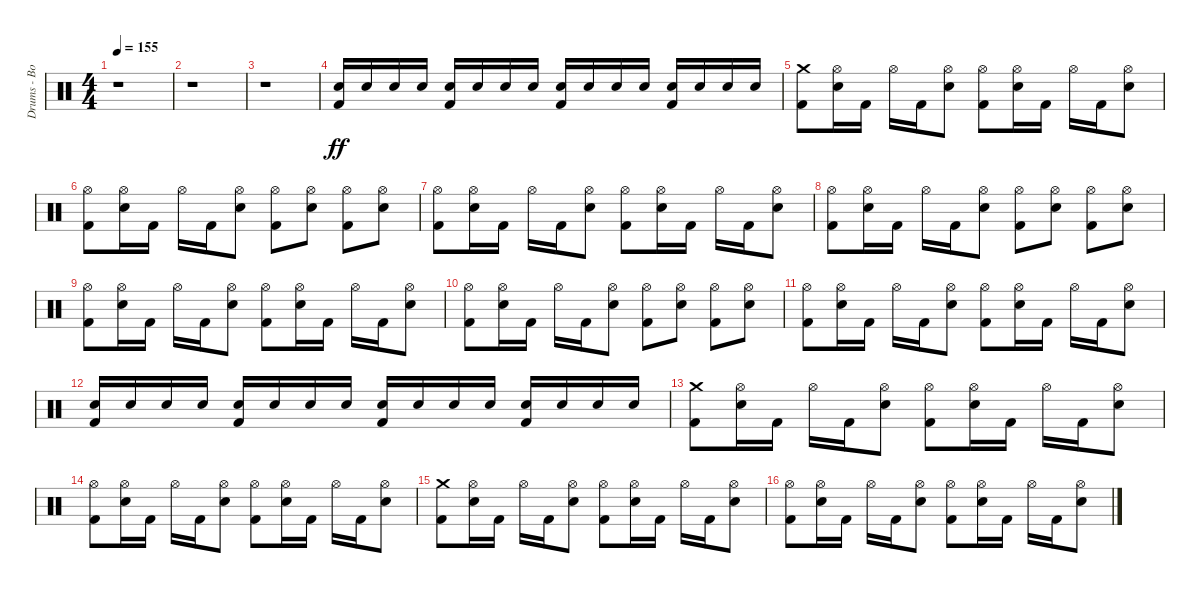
\track ("Drums - Bobby Schayer" "Drums - Bo") {instrument percussion}
\staff {score}
\articulation defaults
\ts (4 4)
\tempo 155
\clef neutral
\ks c
r.1{dy ff} |
r.1 |
r.1 |
("Electric Snare (hit)" "Kick (hit) 2").16 "Electric Snare (hit)".16 "Electric Snare (hit)".16 "Electric Snare (hit)".16 ("Electric Snare (hit)" "Kick (hit) 2").16 "Electric Snare (hit)".16 "Electric Snare (hit)".16 "Electric Snare (hit)".16 ("Electric Snare (hit)" "Kick (hit) 2").16 "Electric Snare (hit)".16 "Electric Snare (hit)".16 "Electric Snare (hit)".16 ("Electric Snare (hit)" "Kick (hit) 2").16 "Electric Snare (hit)".16 "Electric Snare (hit)".16 "Electric Snare (hit)".16 |
("Kick (hit) 2" "Crash medium (hit)").8 ("Electric Snare (hit)" "Hi-Hat (open)").16 "Kick (hit) 2".16 "Hi-Hat (open)".16 "Kick (hit) 2".16 ("Electric Snare (hit)" "Hi-Hat (open)").8 ("Kick (hit) 2" "Hi-Hat (open)").8 ("Electric Snare (hit)" "Hi-Hat (open)").16 "Kick (hit) 2".16 "Hi-Hat (open)".16 "Kick (hit) 2".16 ("Electric Snare (hit)" "Hi-Hat (open)").8 |
("Kick (hit) 2" "Hi-Hat (open)").8 ("Electric Snare (hit)" "Hi-Hat (open)").16 "Kick (hit) 2".16 "Hi-Hat (open)".16 "Kick (hit) 2".16 ("Electric Snare (hit)" "Hi-Hat (open)").8 ("Kick (hit) 2" "Hi-Hat (open)").8 ("Electric Snare (hit)" "Hi-Hat (open)").8 ("Hi-Hat (open)" "Kick (hit) 2").8 ("Electric Snare (hit)" "Hi-Hat (open)").8 |
("Kick (hit) 2" "Hi-Hat (open)").8 ("Electric Snare (hit)" "Hi-Hat (open)").16 "Kick (hit) 2".16 "Hi-Hat (open)".16 "Kick (hit) 2".16 ("Electric Snare (hit)" "Hi-Hat (open)").8 ("Kick (hit) 2" "Hi-Hat (open)").8 ("Electric Snare (hit)" "Hi-Hat (open)").16 "Kick (hit) 2".16 "Hi-Hat (open)".16 "Kick (hit) 2".16 ("Electric Snare (hit)" "Hi-Hat (open)").8 |
("Kick (hit) 2" "Hi-Hat (open)").8 ("Electric Snare (hit)" "Hi-Hat (open)").16 "Kick (hit) 2".16 "Hi-Hat (open)".16 "Kick (hit) 2".16 ("Electric Snare (hit)" "Hi-Hat (open)").8 ("Hi-Hat (open)" "Kick (hit) 2").8 ("Hi-Hat (open)" "Electric Snare (hit)").8 ("Hi-Hat (open)" "Kick (hit) 2").8 ("Hi-Hat (open)" "Electric Snare (hit)").8 |
("Kick (hit) 2" "Hi-Hat (open)").8 ("Electric Snare (hit)" "Hi-Hat (open)").16 "Kick (hit) 2".16 "Hi-Hat (open)".16 "Kick (hit) 2".16 ("Electric Snare (hit)" "Hi-Hat (open)").8 ("Kick (hit) 2" "Hi-Hat (open)").8 ("Electric Snare (hit)" "Hi-Hat (open)").16 "Kick (hit) 2".16 "Hi-Hat (open)".16 "Kick (hit) 2".16 ("Electric Snare (hit)" "Hi-Hat (open)").8 |
("Kick (hit) 2" "Hi-Hat (open)").8 ("Electric Snare (hit)" "Hi-Hat (open)").16 "Kick (hit) 2".16 "Hi-Hat (open)".16 "Kick (hit) 2".16 ("Electric Snare (hit)" "Hi-Hat (open)").8 ("Hi-Hat (open)" "Kick (hit) 2").8 ("Hi-Hat (open)" "Electric Snare (hit)").8 ("Hi-Hat (open)" "Kick (hit) 2").8 ("Hi-Hat (open)" "Electric Snare (hit)").8 |
("Kick (hit) 2" "Hi-Hat (open)").8 ("Electric Snare (hit)" "Hi-Hat (open)").16 "Kick (hit) 2".16 "Hi-Hat (open)".16 "Kick (hit) 2".16 ("Electric Snare (hit)" "Hi-Hat (open)").8 ("Kick (hit) 2" "Hi-Hat (open)").8 ("Electric Snare (hit)" "Hi-Hat (open)").16 "Kick (hit) 2".16 "Hi-Hat (open)".16 "Kick (hit) 2".16 ("Electric Snare (hit)" "Hi-Hat (open)").8 |
("Electric Snare (hit)" "Kick (hit) 2").16 "Electric Snare (hit)".16 "Electric Snare (hit)".16 "Electric Snare (hit)".16 ("Electric Snare (hit)" "Kick (hit) 2").16 "Electric Snare (hit)".16 "Electric Snare (hit)".16 "Electric Snare (hit)".16 ("Electric Snare (hit)" "Kick (hit) 2").16 "Electric Snare (hit)".16 "Electric Snare (hit)".16 "Electric Snare (hit)".16 ("Electric Snare (hit)" "Kick (hit) 2").16 "Electric Snare (hit)".16 "Electric Snare (hit)".16 "Electric Snare (hit)".16 |
("Kick (hit) 2" "Crash medium (hit)").8 ("Electric Snare (hit)" "Hi-Hat (open)").16 "Kick (hit) 2".16 "Hi-Hat (open)".16 "Kick (hit) 2".16 ("Electric Snare (hit)" "Hi-Hat (open)").8 ("Kick (hit) 2" "Hi-Hat (open)").8 ("Electric Snare (hit)" "Hi-Hat (open)").16 "Kick (hit) 2".16 "Hi-Hat (open)".16 "Kick (hit) 2".16 ("Electric Snare (hit)" "Hi-Hat (open)").8 |
("Kick (hit) 2" "Hi-Hat (open)").8 ("Electric Snare (hit)" "Hi-Hat (open)").16 "Kick (hit) 2".16 "Hi-Hat (open)".16 "Kick (hit) 2".16 ("Electric Snare (hit)" "Hi-Hat (open)").8 ("Kick (hit) 2" "Hi-Hat (open)").8 ("Electric Snare (hit)" "Hi-Hat (open)").16 "Kick (hit) 2".16 "Hi-Hat (open)".16 "Kick (hit) 2".16 ("Electric Snare (hit)" "Hi-Hat (open)").8 |
("Kick (hit) 2" "Crash medium (hit)").8 ("Electric Snare (hit)" "Hi-Hat (open)").16 "Kick (hit) 2".16 "Hi-Hat (open)".16 "Kick (hit) 2".16 ("Electric Snare (hit)" "Hi-Hat (open)").8 ("Kick (hit) 2" "Hi-Hat (open)").8 ("Electric Snare (hit)" "Hi-Hat (open)").16 "Kick (hit) 2".16 "Hi-Hat (open)".16 "Kick (hit) 2".16 ("Electric Snare (hit)" "Hi-Hat (open)").8 |
("Kick (hit) 2" "Hi-Hat (open)").8 ("Electric Snare (hit)" "Hi-Hat (open)").16 "Kick (hit) 2".16 "Hi-Hat (open)".16 "Kick (hit) 2".16 ("Electric Snare (hit)" "Hi-Hat (open)").8 ("Kick (hit) 2" "Hi-Hat (open)").8 ("Electric Snare (hit)" "Hi-Hat (open)").16 "Kick (hit) 2".16 "Hi-Hat (open)".16 "Kick (hit) 2".16 ("Electric Snare (hit)" "Hi-Hat (open)").8
